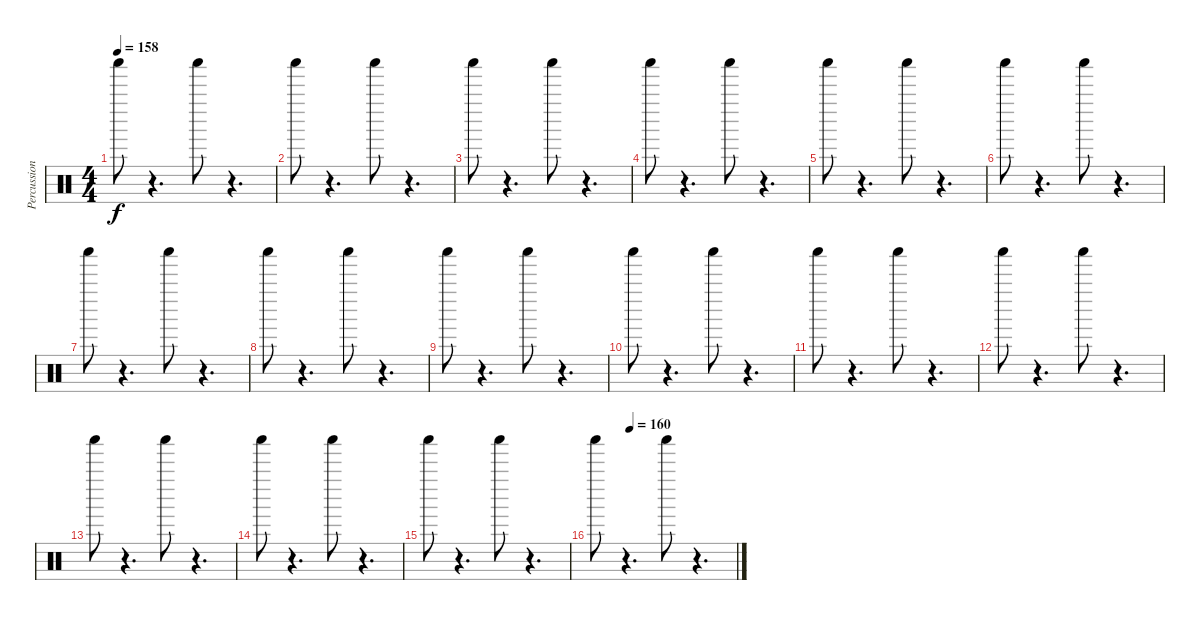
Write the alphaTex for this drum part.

\track ("Percussions" "Percussion") {instrument percussion}
\staff {score}
\articulation defaults
\ts (4 4)
\tempo 158
\clef neutral
\ks c "Shaker (hit)".8{dy f}
r.4{d} "Shaker (hit)".8 r.4{d} |
"Shaker (hit)".8 r.4{d} "Shaker (hit)".8 r.4{d} |
"Shaker (hit)".8 r.4{d} "Shaker (hit)".8 r.4{d} |
"Shaker (hit)".8 r.4{d} "Shaker (hit)".8 r.4{d} |
"Shaker (hit)".8 r.4{d} "Shaker (hit)".8 r.4{d} |
"Shaker (hit)".8 r.4{d} "Shaker (hit)".8 r.4{d} |
"Shaker (hit)".8 r.4{d} "Shaker (hit)".8 r.4{d} |
"Shaker (hit)".8 r.4{d} "Shaker (hit)".8 r.4{d} |
"Shaker (hit)".8 r.4{d} "Shaker (hit)".8 r.4{d} |
"Shaker (hit)".8 r.4{d} "Shaker (hit)".8 r.4{d} |
"Shaker (hit)".8 r.4{d} "Shaker (hit)".8 r.4{d} |
"Shaker (hit)".8 r.4{d} "Shaker (hit)".8 r.4{d} |
"Shaker (hit)".8 r.4{d} "Shaker (hit)".8 r.4{d} |
"Shaker (hit)".8 r.4{d} "Shaker (hit)".8 r.4{d} |
"Shaker (hit)".8 r.4{d} "Shaker (hit)".8 r.4{d} |
\tempo (160 0.25)
"Shaker (hit)".8 r.4{d} "Shaker (hit)".8 r.4{d}
